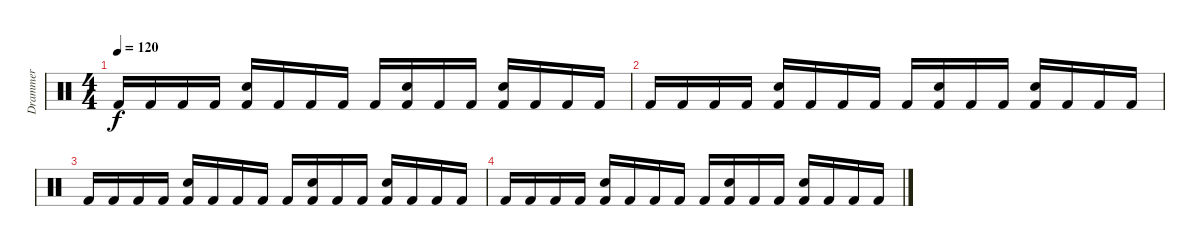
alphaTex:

\track ("Drammer" "Drammer") {instrument percussion}
\staff {score}
\articulation defaults
\ts (4 4)
\tempo 120
\clef neutral
\ks c "Kick (hit) 2".16{dy f} "Kick (hit) 2".16 "Kick (hit) 2".16 "Kick (hit) 2".16
("Snare (hit) 2" "Kick (hit) 2").16 "Kick (hit) 2".16 "Kick (hit) 2".16 "Kick (hit) 2".16 "Kick (hit) 2".16 ("Snare (hit) 2" "Kick (hit) 2").16 "Kick (hit) 2".16 "Kick (hit) 2".16 ("Snare (hit) 2" "Kick (hit) 2").16 "Kick (hit) 2".16 "Kick (hit) 2".16 "Kick (hit) 2".16 |
"Kick (hit) 2".16 "Kick (hit) 2".16 "Kick (hit) 2".16 "Kick (hit) 2".16 ("Snare (hit) 2" "Kick (hit) 2").16 "Kick (hit) 2".16 "Kick (hit) 2".16 "Kick (hit) 2".16 "Kick (hit) 2".16 ("Snare (hit) 2" "Kick (hit) 2").16 "Kick (hit) 2".16 "Kick (hit) 2".16 ("Snare (hit) 2" "Kick (hit) 2").16 "Kick (hit) 2".16 "Kick (hit) 2".16 "Kick (hit) 2".16 |
"Kick (hit) 2".16 "Kick (hit) 2".16 "Kick (hit) 2".16 "Kick (hit) 2".16 ("Snare (hit) 2" "Kick (hit) 2").16 "Kick (hit) 2".16 "Kick (hit) 2".16 "Kick (hit) 2".16 "Kick (hit) 2".16 ("Snare (hit) 2" "Kick (hit) 2").16 "Kick (hit) 2".16 "Kick (hit) 2".16 ("Snare (hit) 2" "Kick (hit) 2").16 "Kick (hit) 2".16 "Kick (hit) 2".16 "Kick (hit) 2".16 |
"Kick (hit) 2".16 "Kick (hit) 2".16 "Kick (hit) 2".16 "Kick (hit) 2".16 ("Snare (hit) 2" "Kick (hit) 2").16 "Kick (hit) 2".16 "Kick (hit) 2".16 "Kick (hit) 2".16 "Kick (hit) 2".16 ("Snare (hit) 2" "Kick (hit) 2").16 "Kick (hit) 2".16 "Kick (hit) 2".16 ("Snare (hit) 2" "Kick (hit) 2").16 "Kick (hit) 2".16 "Kick (hit) 2".16 "Kick (hit) 2".16
